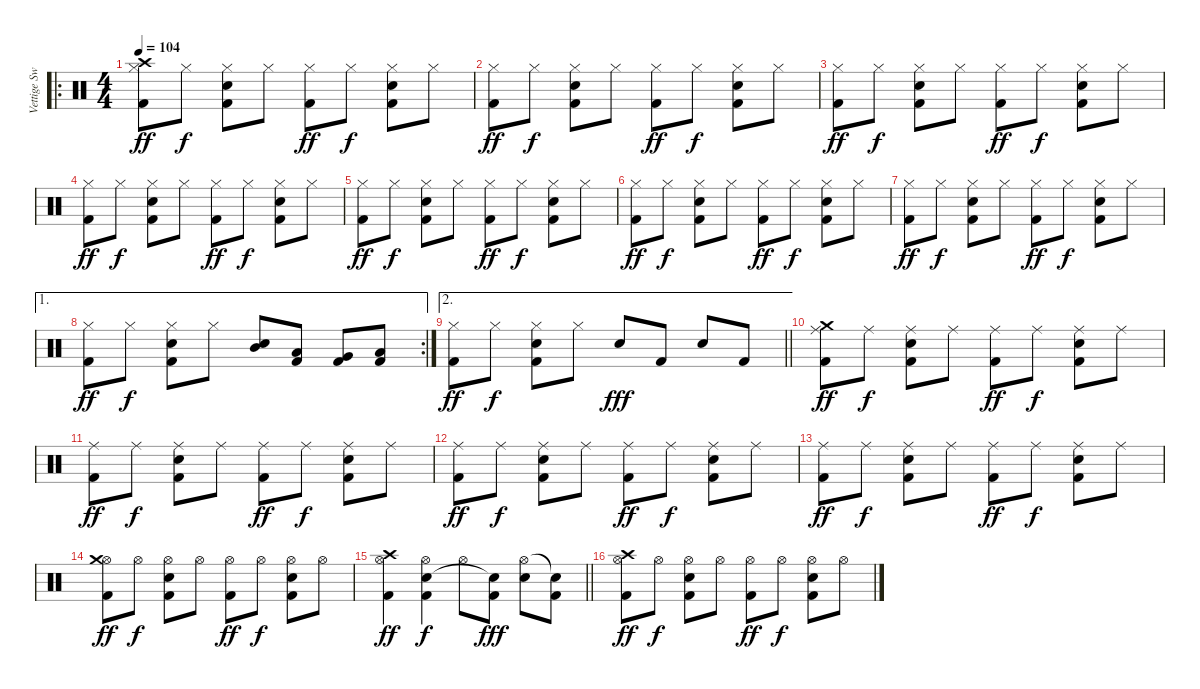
\track ("Vettige Swa" "Vettige Sw") {instrument percussion}
\staff {score}
\articulation defaults
\ro
\ts (4 4)
\tempo 104
\clef neutral
\ks c
("Hi-Hat (closed)" "Crash high (hit)" "Kick (hit) 2").8{dy ff} "Hi-Hat (closed)".8{dy f} ("Hi-Hat (closed)" "Electric Snare (hit)" "Kick (hit) 2").8 "Hi-Hat (closed)".8 ("Hi-Hat (closed)" "Kick (hit) 2").8{dy ff} "Hi-Hat (closed)".8{dy f} ("Hi-Hat (closed)" "Electric Snare (hit)" "Kick (hit) 2").8 "Hi-Hat (closed)".8 |
("Hi-Hat (closed)" "Kick (hit) 2").8{dy ff} "Hi-Hat (closed)".8{dy f} ("Hi-Hat (closed)" "Electric Snare (hit)" "Kick (hit) 2").8 "Hi-Hat (closed)".8 ("Hi-Hat (closed)" "Kick (hit) 2").8{dy ff} "Hi-Hat (closed)".8{dy f} ("Hi-Hat (closed)" "Electric Snare (hit)" "Kick (hit) 2").8 "Hi-Hat (closed)".8 |
("Hi-Hat (closed)" "Kick (hit) 2").8{dy ff} "Hi-Hat (closed)".8{dy f} ("Hi-Hat (closed)" "Electric Snare (hit)" "Kick (hit) 2").8 "Hi-Hat (closed)".8 ("Hi-Hat (closed)" "Kick (hit) 2").8{dy ff} "Hi-Hat (closed)".8{dy f} ("Hi-Hat (closed)" "Electric Snare (hit)" "Kick (hit) 2").8 "Hi-Hat (closed)".8 |
("Hi-Hat (closed)" "Kick (hit) 2").8{dy ff} "Hi-Hat (closed)".8{dy f} ("Hi-Hat (closed)" "Electric Snare (hit)" "Kick (hit) 2").8 "Hi-Hat (closed)".8 ("Hi-Hat (closed)" "Kick (hit) 2").8{dy ff} "Hi-Hat (closed)".8{dy f} ("Hi-Hat (closed)" "Electric Snare (hit)" "Kick (hit) 2").8 "Hi-Hat (closed)".8 |
("Hi-Hat (closed)" "Kick (hit) 2").8{dy ff} "Hi-Hat (closed)".8{dy f} ("Hi-Hat (closed)" "Electric Snare (hit)" "Kick (hit) 2").8 "Hi-Hat (closed)".8 ("Hi-Hat (closed)" "Kick (hit) 2").8{dy ff} "Hi-Hat (closed)".8{dy f} ("Hi-Hat (closed)" "Electric Snare (hit)" "Kick (hit) 2").8 "Hi-Hat (closed)".8 |
("Hi-Hat (closed)" "Kick (hit) 2").8{dy ff} "Hi-Hat (closed)".8{dy f} ("Hi-Hat (closed)" "Electric Snare (hit)" "Kick (hit) 2").8 "Hi-Hat (closed)".8 ("Hi-Hat (closed)" "Kick (hit) 2").8{dy ff} "Hi-Hat (closed)".8{dy f} ("Hi-Hat (closed)" "Electric Snare (hit)" "Kick (hit) 2").8 "Hi-Hat (closed)".8 |
("Hi-Hat (closed)" "Kick (hit) 2").8{dy ff} "Hi-Hat (closed)".8{dy f} ("Hi-Hat (closed)" "Electric Snare (hit)" "Kick (hit) 2").8 "Hi-Hat (closed)".8 ("Hi-Hat (closed)" "Kick (hit) 2").8{dy ff} "Hi-Hat (closed)".8{dy f} ("Hi-Hat (closed)" "Electric Snare (hit)" "Kick (hit) 2").8 "Hi-Hat (closed)".8 |
\ae 1
\rc 2
("Hi-Hat (closed)" "Kick (hit) 2").8{dy ff} "Hi-Hat (closed)".8{dy f} ("Hi-Hat (closed)" "Electric Snare (hit)" "Kick (hit) 2").8 "Hi-Hat (closed)".8 ("Electric Snare (hit)" "Mid Tom (hit)").8 ("Kick (hit) 2" "Low Tom (hit)").8 ("Kick (hit) 2" "Very Low Tom (hit)").8 ("Kick (hit) 2" "Low Floor Tom (hit)").8 |
\ae 2
\barLineRight lightlight
("Hi-Hat (closed)" "Kick (hit) 2").8{dy ff} "Hi-Hat (closed)".8{dy f} ("Hi-Hat (closed)" "Electric Snare (hit)" "Kick (hit) 2").8 "Hi-Hat (closed)".8 "Electric Snare (hit)".8{dy fff} "Kick (hit) 2".8 "Electric Snare (hit)".8 "Kick (hit) 2".8 |
("Ride (middle)" "Kick (hit) 2" "Crash medium (hit)").8{dy ff} "Ride (middle)".8{dy f} ("Ride (middle)" "Electric Snare (hit)" "Kick (hit) 2").8 "Ride (middle)".8 ("Ride (middle)" "Kick (hit) 2").8{dy ff} "Ride (middle)".8{dy f} ("Ride (middle)" "Electric Snare (hit)" "Kick (hit) 2").8 "Ride (middle)".8 |
("Ride (middle)" "Kick (hit) 2").8{dy ff} "Ride (middle)".8{dy f} ("Ride (middle)" "Electric Snare (hit)" "Kick (hit) 2").8 "Ride (middle)".8 ("Ride (middle)" "Kick (hit) 2").8{dy ff} "Ride (middle)".8{dy f} ("Ride (middle)" "Electric Snare (hit)" "Kick (hit) 2").8 "Ride (middle)".8 |
("Ride (middle)" "Kick (hit) 2").8{dy ff} "Ride (middle)".8{dy f} ("Ride (middle)" "Electric Snare (hit)" "Kick (hit) 2").8 "Ride (middle)".8 ("Ride (middle)" "Kick (hit) 2").8{dy ff} "Ride (middle)".8{dy f} ("Ride (middle)" "Electric Snare (hit)" "Kick (hit) 2").8 "Ride (middle)".8 |
("Ride (middle)" "Kick (hit) 2").8{dy ff} "Ride (middle)".8{dy f} ("Ride (middle)" "Electric Snare (hit)" "Kick (hit) 2").8 "Ride (middle)".8 ("Ride (middle)" "Kick (hit) 2").8{dy ff} "Ride (middle)".8{dy f} ("Ride (middle)" "Electric Snare (hit)" "Kick (hit) 2").8 "Ride (middle)".8 |
("Hi-Hat (open)" "Kick (hit) 2" "Crash medium (hit)").8{dy ff} "Hi-Hat (open)".8{dy f} ("Hi-Hat (open)" "Electric Snare (hit)" "Kick (hit) 2").8 "Hi-Hat (open)".8 ("Hi-Hat (open)" "Kick (hit) 2").8{dy ff} "Hi-Hat (open)".8{dy f} ("Hi-Hat (open)" "Electric Snare (hit)" "Kick (hit) 2").8 "Hi-Hat (open)".8 |
\barLineRight lightlight
("Crash high (hit)" "Kick (hit) 2" "Hi-Hat (open)").4{dy ff} ("Hi-Hat (open)" "Electric Snare (hit)" "Kick (hit) 2").4{dy f} "Hi-Hat (open)".8 ("Kick (hit) 2" "Snare (hit)"{t}).8{dy fff} ("Electric Snare (hit)" "Hi-Hat (open)").8 ("Kick (hit) 2" "Snare (hit)"{t}).8 |
("Hi-Hat (open)" "Crash high (hit)" "Kick (hit) 2").8{dy ff} "Hi-Hat (open)".8{dy f} ("Hi-Hat (open)" "Electric Snare (hit)" "Kick (hit) 2").8 "Hi-Hat (open)".8 ("Hi-Hat (open)" "Kick (hit) 2").8{dy ff} "Hi-Hat (open)".8{dy f} ("Hi-Hat (open)" "Electric Snare (hit)" "Kick (hit) 2").8 "Hi-Hat (open)".8
